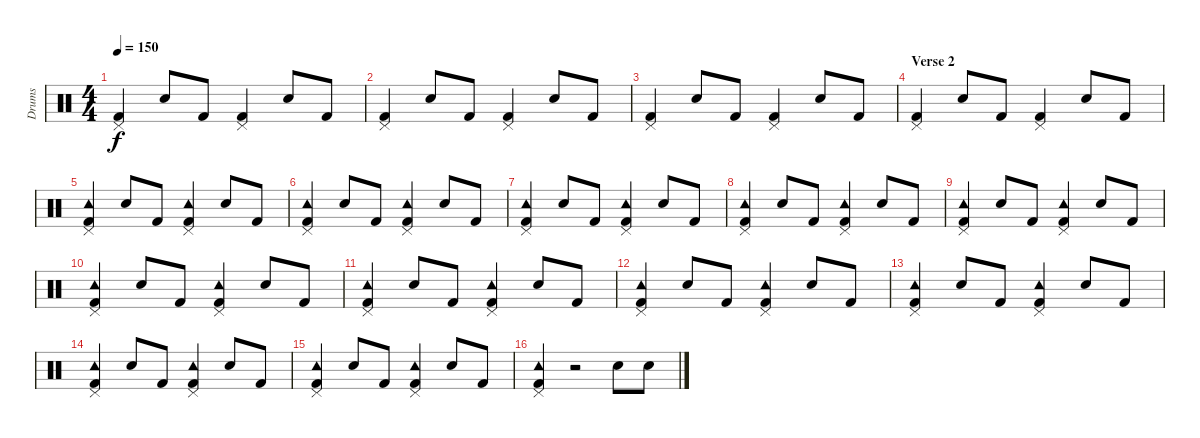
\track ("Drums" "Drums") {instrument percussion}
\staff {score}
\articulation defaults
\ts (4 4)
\tempo 150
\clef neutral
\ks c
("Kick (hit) 2" "Pedal Hi-Hat (hit)").4{dy f} "Snare (hit) 2".8 "Kick (hit) 2".8 ("Kick (hit) 2" "Pedal Hi-Hat (hit)").4 "Snare (hit) 2".8 "Kick (hit) 2".8 |
("Kick (hit) 2" "Pedal Hi-Hat (hit)").4 "Snare (hit) 2".8 "Kick (hit) 2".8 ("Kick (hit) 2" "Pedal Hi-Hat (hit)").4 "Snare (hit) 2".8 "Kick (hit) 2".8 |
("Kick (hit) 2" "Pedal Hi-Hat (hit)").4 "Snare (hit) 2".8 "Kick (hit) 2".8 ("Kick (hit) 2" "Pedal Hi-Hat (hit)").4 "Snare (hit) 2".8 "Kick (hit) 2".8 |
\section ("" "Verse 2")
("Kick (hit) 2" "Pedal Hi-Hat (hit)").4 "Snare (hit) 2".8 "Kick (hit) 2".8 ("Kick (hit) 2" "Pedal Hi-Hat (hit)").4 "Snare (hit) 2".8 "Kick (hit) 2".8 |
("Kick (hit) 2" "Pedal Hi-Hat (hit)" "Tambourine (hit)").4 "Snare (hit) 2".8 "Kick (hit) 2".8 ("Kick (hit) 2" "Pedal Hi-Hat (hit)" "Tambourine (hit)").4 "Snare (hit) 2".8 "Kick (hit) 2".8 |
("Kick (hit) 2" "Pedal Hi-Hat (hit)" "Tambourine (hit)").4 "Snare (hit) 2".8 "Kick (hit) 2".8 ("Kick (hit) 2" "Pedal Hi-Hat (hit)" "Tambourine (hit)").4 "Snare (hit) 2".8 "Kick (hit) 2".8 |
("Kick (hit) 2" "Pedal Hi-Hat (hit)" "Tambourine (hit)").4 "Snare (hit) 2".8 "Kick (hit) 2".8 ("Kick (hit) 2" "Pedal Hi-Hat (hit)" "Tambourine (hit)").4 "Snare (hit) 2".8 "Kick (hit) 2".8 |
("Kick (hit) 2" "Pedal Hi-Hat (hit)" "Tambourine (hit)").4 "Snare (hit) 2".8 "Kick (hit) 2".8 ("Kick (hit) 2" "Pedal Hi-Hat (hit)" "Tambourine (hit)").4 "Snare (hit) 2".8 "Kick (hit) 2".8 |
("Kick (hit) 2" "Pedal Hi-Hat (hit)" "Tambourine (hit)").4 "Snare (hit) 2".8 "Kick (hit) 2".8 ("Kick (hit) 2" "Pedal Hi-Hat (hit)" "Tambourine (hit)").4 "Snare (hit) 2".8 "Kick (hit) 2".8 |
("Kick (hit) 2" "Pedal Hi-Hat (hit)" "Tambourine (hit)").4 "Snare (hit) 2".8 "Kick (hit) 2".8 ("Kick (hit) 2" "Pedal Hi-Hat (hit)" "Tambourine (hit)").4 "Snare (hit) 2".8 "Kick (hit) 2".8 |
("Kick (hit) 2" "Pedal Hi-Hat (hit)" "Tambourine (hit)").4 "Snare (hit) 2".8 "Kick (hit) 2".8 ("Kick (hit) 2" "Pedal Hi-Hat (hit)" "Tambourine (hit)").4 "Snare (hit) 2".8 "Kick (hit) 2".8 |
("Kick (hit) 2" "Pedal Hi-Hat (hit)" "Tambourine (hit)").4 "Snare (hit) 2".8 "Kick (hit) 2".8 ("Kick (hit) 2" "Pedal Hi-Hat (hit)" "Tambourine (hit)").4 "Snare (hit) 2".8 "Kick (hit) 2".8 |
("Kick (hit) 2" "Pedal Hi-Hat (hit)" "Tambourine (hit)").4 "Snare (hit) 2".8 "Kick (hit) 2".8 ("Kick (hit) 2" "Pedal Hi-Hat (hit)" "Tambourine (hit)").4 "Snare (hit) 2".8 "Kick (hit) 2".8 |
("Kick (hit) 2" "Pedal Hi-Hat (hit)" "Tambourine (hit)").4 "Snare (hit) 2".8 "Kick (hit) 2".8 ("Kick (hit) 2" "Pedal Hi-Hat (hit)" "Tambourine (hit)").4 "Snare (hit) 2".8 "Kick (hit) 2".8 |
("Kick (hit) 2" "Pedal Hi-Hat (hit)" "Tambourine (hit)").4 "Snare (hit) 2".8 "Kick (hit) 2".8 ("Kick (hit) 2" "Pedal Hi-Hat (hit)" "Tambourine (hit)").4 "Snare (hit) 2".8 "Kick (hit) 2".8 |
("Kick (hit) 2" "Pedal Hi-Hat (hit)" "Tambourine (hit)").4 r.2 "Snare (hit) 2".8 "Snare (hit) 2".8
